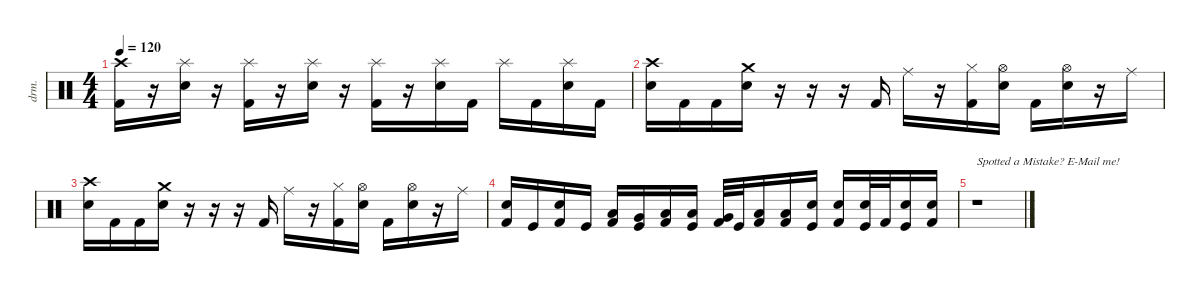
\defaultSystemsLayout 4
\hideDynamics
\bracketExtendMode nobrackets
\track ("Drums" "drm.") {instrument percussion}
\staff {score}
\articulation defaults
\ts (4 4)
\tempo 120
\clef neutral
\ks c
("Crash high (hit)" "Kick (hit) 2").16{dy fff} r.16 ("Splash (hit)" "Snare (hit) 2").16 r.16 ("Splash (hit)" "Kick (hit) 2").16 r.16 ("Splash (hit)" "Snare (hit) 2").16 r.16 ("Splash (hit)" "Kick (hit) 2").16 r.16 ("Splash (hit)" "Snare (hit) 2").16 "Kick (hit) 2".16{dy f} "Splash (hit)".16{dy fff} "Kick (hit) 2".16{dy f} ("Splash (hit)" "Snare (hit) 2").16{dy fff} "Kick (hit) 2".16{dy f} |
("Crash high (hit)" "Snare (hit) 2").16{dy fff} "Kick (hit) 2".16{dy f} "Kick (hit) 2".16 ("Crash medium (hit)" "Snare (hit) 2").16{dy fff} r.16 r.16 r.16 "Kick (hit) 2".16{dy f} "Ride (middle)".16{dy fff} r.16 ("Hi-Hat (closed)" "Kick (hit) 2").16 ("Hi-Hat (open)" "Snare (hit) 2").16 "Kick (hit) 2".16{dy f} ("Hi-Hat (open)" "Snare (hit) 2").16{dy fff} r.16 "Ride (middle)".16 |
("Crash high (hit)" "Snare (hit) 2").16 "Kick (hit) 2".16{dy f} "Kick (hit) 2".16 ("Crash medium (hit)" "Snare (hit) 2").16{dy fff} r.16 r.16 r.16 "Kick (hit) 2".16{dy f} "Ride (middle)".16{dy fff} r.16 ("Hi-Hat (closed)" "Kick (hit) 2").16 ("Hi-Hat (open)" "Snare (hit) 2").16 "Kick (hit) 2".16{dy f} ("Hi-Hat (open)" "Snare (hit) 2").16{dy fff} r.16 "Ride (middle)".16 |
("Snare (hit) 2" "Kick (hit) 2").16{dy f} "Kick (hit)".16 ("Snare (hit) 2" "Kick (hit) 2").16 "Kick (hit)".16 ("Low Tom (hit)" "Kick (hit) 2").16 ("Very Low Tom (hit)" "Kick (hit)").16 ("Low Floor Tom (hit)" "Kick (hit) 2").16 ("Low Tom (hit)" "Kick (hit)").16 ("Very Low Tom (hit)" "Kick (hit) 2").32 "Kick (hit)".32 ("Low Floor Tom (hit)" "Kick (hit) 2").16 ("Low Tom (hit)" "Kick (hit) 2").16 ("Snare (hit) 2" "Kick (hit)").16 ("Snare (hit) 2" "Kick (hit) 2").16 ("Snare (hit) 2" "Kick (hit)").32 "Kick (hit) 2".32 ("Snare (hit) 2" "Kick (hit)").16 ("Snare (hit) 2" "Kick (hit) 2").16 |
r.1{txt "Spotted a Mistake? E-Mail me!"}
